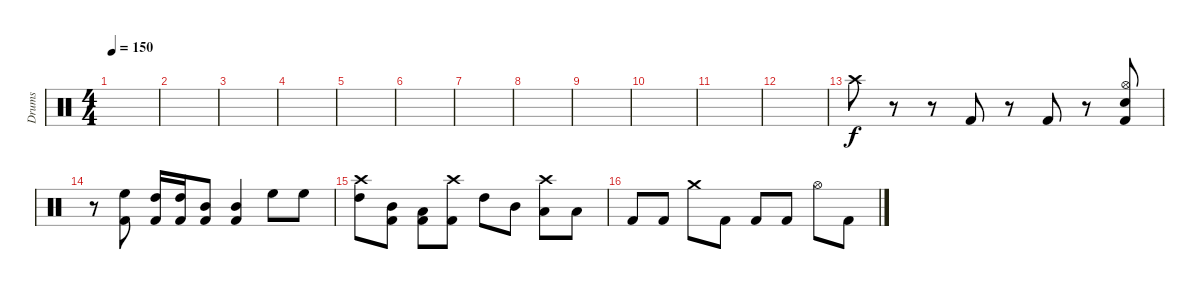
\track ("Drums" "Drums") {instrument percussion}
\staff {score}
\articulation defaults
\ts (4 4)
\tempo 150
\clef neutral
\ks c
|
|
|
|
|
|
|
|
|
|
|
|
"Crash high (hit)".8 r.8 r.8 "Kick (hit) 2".8 r.8 "Kick (hit) 2".8 r.8 ("Kick (hit) 2" "Hi-Hat (open)" "Snare (hit) 2").8 |
r.8 ("Kick (hit) 2" "High Floor Tom (hit)").8 ("Kick (hit) 2" "High Tom (hit)").16 ("Kick (hit) 2" "High Tom (hit)").16 ("Kick (hit) 2" "Mid Tom (hit)").8 ("Kick (hit) 2" "Mid Tom (hit)").4 "High Floor Tom (hit)".8 "High Floor Tom (hit)".8 |
("Crash high (hit)" "High Tom (hit)").8 ("Kick (hit) 2" "Mid Tom (hit)").8 ("Kick (hit) 2" "Low Tom (hit)").8 ("Kick (hit) 2" "Crash high (hit)").8 "High Tom (hit)".8 "Mid Tom (hit)".8 ("Low Tom (hit)" "Crash high (hit)").8 "Low Tom (hit)".8 |
"Kick (hit) 2".8 "Kick (hit) 2".8 "Crash medium (hit)".8 "Kick (hit) 2".8 "Kick (hit) 2".8 "Kick (hit) 2".8 "Hi-Hat (open)".8 "Kick (hit) 2".8
